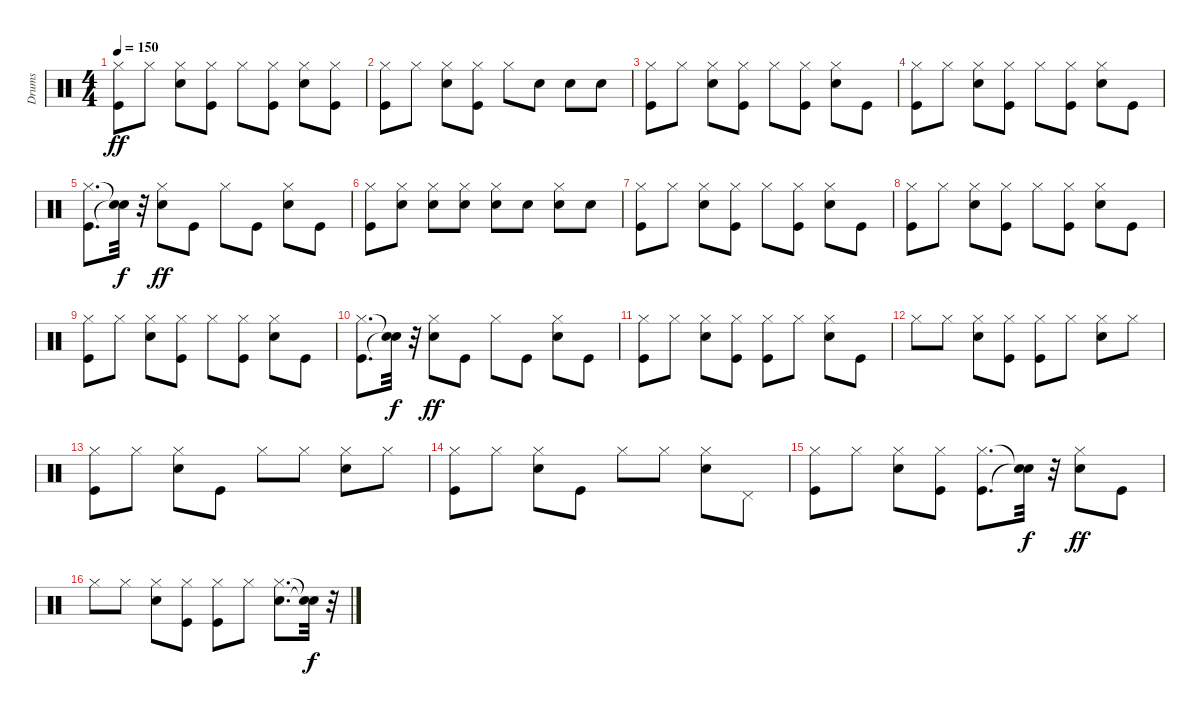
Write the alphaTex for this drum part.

\track ("Drums" "Drums") {instrument percussion}
\staff {score}
\articulation defaults
\ts (4 4)
\tempo 150
\clef neutral
\ks c
("Kick (hit)" "Hi-Hat (closed)").8{dy ff} "Hi-Hat (closed)".8 ("Snare (hit) 2" "Hi-Hat (closed)").8 ("Kick (hit)" "Hi-Hat (closed)").8 "Hi-Hat (closed)".8 ("Kick (hit)" "Hi-Hat (closed)").8 ("Snare (hit) 2" "Hi-Hat (closed)").8 ("Kick (hit)" "Hi-Hat (closed)").8 |
("Kick (hit)" "Hi-Hat (closed)").8 "Hi-Hat (closed)".8 ("Snare (hit) 2" "Hi-Hat (closed)").8 ("Kick (hit)" "Hi-Hat (closed)").8 "Hi-Hat (closed)".8 "Snare (hit) 2".8 "Snare (hit) 2".8 "Snare (hit) 2".8 |
("Kick (hit)" "Hi-Hat (closed)").8 "Hi-Hat (closed)".8 ("Snare (hit) 2" "Hi-Hat (closed)").8 ("Kick (hit)" "Hi-Hat (closed)").8 "Hi-Hat (closed)".8 ("Kick (hit)" "Hi-Hat (closed)").8 ("Snare (hit) 2" "Hi-Hat (closed)").8 "Kick (hit)".8 |
("Kick (hit)" "Hi-Hat (closed)").8 "Hi-Hat (closed)".8 ("Snare (hit) 2" "Hi-Hat (closed)").8 ("Kick (hit)" "Hi-Hat (closed)").8 "Hi-Hat (closed)".8 ("Kick (hit)" "Hi-Hat (closed)").8 ("Snare (hit) 2" "Hi-Hat (closed)").8 "Kick (hit)".8 |
("Kick (hit)" "Hi-Hat (closed)").8{d} ("Snare (hit)"{t} "Snare (hit)"{t}).32{dy f} r.32 ("Snare (hit) 2" "Hi-Hat (closed)").8{dy ff} "Kick (hit)".8 "Hi-Hat (closed)".8 "Kick (hit)".8 ("Snare (hit) 2" "Hi-Hat (closed)").8 "Kick (hit)".8 |
("Kick (hit)" "Hi-Hat (closed)").8 ("Snare (hit) 2" "Hi-Hat (closed)").8 ("Snare (hit) 2" "Hi-Hat (closed)").8 ("Snare (hit) 2" "Hi-Hat (closed)").8 ("Snare (hit) 2" "Hi-Hat (closed)").8 "Snare (hit) 2".8 ("Snare (hit) 2" "Hi-Hat (closed)").8 "Snare (hit) 2".8 |
("Kick (hit)" "Hi-Hat (closed)").8 "Hi-Hat (closed)".8 ("Snare (hit) 2" "Hi-Hat (closed)").8 ("Kick (hit)" "Hi-Hat (closed)").8 "Hi-Hat (closed)".8 ("Kick (hit)" "Hi-Hat (closed)").8 ("Snare (hit) 2" "Hi-Hat (closed)").8 "Kick (hit)".8 |
("Kick (hit)" "Hi-Hat (closed)").8 "Hi-Hat (closed)".8 ("Snare (hit) 2" "Hi-Hat (closed)").8 ("Kick (hit)" "Hi-Hat (closed)").8 "Hi-Hat (closed)".8 ("Kick (hit)" "Hi-Hat (closed)").8 ("Snare (hit) 2" "Hi-Hat (closed)").8 "Kick (hit)".8 |
("Kick (hit)" "Hi-Hat (closed)").8 "Hi-Hat (closed)".8 ("Snare (hit) 2" "Hi-Hat (closed)").8 ("Kick (hit)" "Hi-Hat (closed)").8 "Hi-Hat (closed)".8 ("Kick (hit)" "Hi-Hat (closed)").8 ("Snare (hit) 2" "Hi-Hat (closed)").8 "Kick (hit)".8 |
("Kick (hit)" "Hi-Hat (closed)").8{d} ("Snare (hit)"{t} "Snare (hit)"{t}).32{dy f} r.32 ("Snare (hit) 2" "Hi-Hat (closed)").8{dy ff} "Kick (hit)".8 "Hi-Hat (closed)".8 "Kick (hit)".8 ("Snare (hit) 2" "Hi-Hat (closed)").8 "Kick (hit)".8 |
("Kick (hit)" "Hi-Hat (closed)").8 "Hi-Hat (closed)".8 ("Snare (hit) 2" "Hi-Hat (closed)").8 ("Kick (hit)" "Hi-Hat (closed)").8 ("Kick (hit)" "Hi-Hat (closed)").8 "Hi-Hat (closed)".8 ("Snare (hit) 2" "Hi-Hat (closed)").8 "Kick (hit)".8 |
"Hi-Hat (closed)".8 "Hi-Hat (closed)".8 ("Snare (hit) 2" "Hi-Hat (closed)").8 ("Kick (hit)" "Hi-Hat (closed)").8 ("Kick (hit)" "Hi-Hat (closed)").8 "Hi-Hat (closed)".8 ("Snare (hit) 2" "Hi-Hat (closed)").8 "Hi-Hat (closed)".8 |
("Kick (hit)" "Hi-Hat (closed)").8 "Hi-Hat (closed)".8 ("Snare (hit) 2" "Hi-Hat (closed)").8 "Kick (hit)".8 "Hi-Hat (closed)".8 "Hi-Hat (closed)".8 ("Snare (hit) 2" "Hi-Hat (closed)").8 "Hi-Hat (closed)".8 |
("Kick (hit)" "Hi-Hat (closed)").8 "Hi-Hat (closed)".8 ("Snare (hit) 2" "Hi-Hat (closed)").8 "Kick (hit)".8 "Hi-Hat (closed)".8 "Hi-Hat (closed)".8 ("Snare (hit) 2" "Hi-Hat (closed)").8 "Pedal Hi-Hat (hit)".8 |
("Kick (hit)" "Hi-Hat (closed)").8 "Hi-Hat (closed)".8 ("Snare (hit) 2" "Hi-Hat (closed)").8 ("Kick (hit)" "Hi-Hat (closed)").8 ("Kick (hit)" "Hi-Hat (closed)").8{d} ("Snare (hit)"{t} "Snare (hit)"{t}).32{dy f} r.32 ("Snare (hit) 2" "Hi-Hat (closed)").8{dy ff} "Kick (hit)".8 |
"Hi-Hat (closed)".8 "Hi-Hat (closed)".8 ("Snare (hit) 2" "Hi-Hat (closed)").8 ("Kick (hit)" "Hi-Hat (closed)").8 ("Kick (hit)" "Hi-Hat (closed)").8 "Hi-Hat (closed)".8 ("Snare (hit) 2" "Hi-Hat (closed)").8{d} ("Snare (hit)"{t} "Snare (hit)"{t}).32{dy f} r.32
